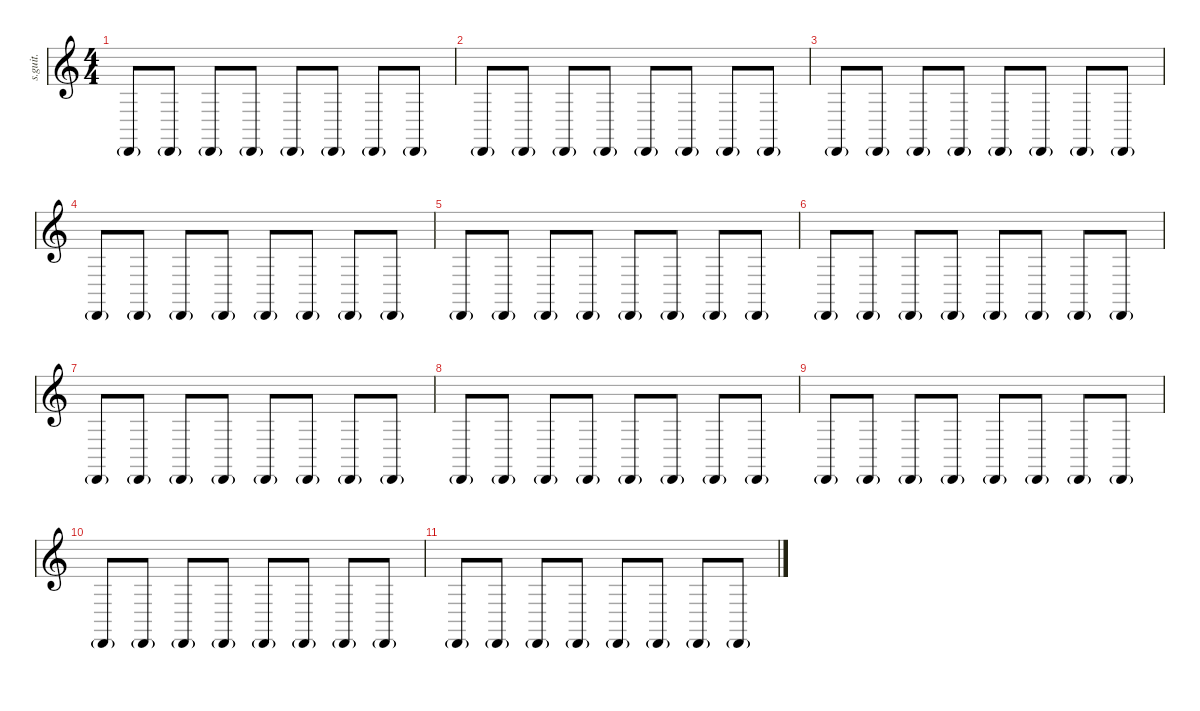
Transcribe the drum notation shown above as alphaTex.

\defaultSystemsLayout 4
\hideDynamics
\bracketExtendMode nobrackets
\track ("Shaker" "s.guit.") {instrument percussion}
\staff {score}
\articulation defaults
\ts (4 4)
\tempo (124 hide)
\clef g2
\ks c "Cabasa (hit)"{g}.8{lyrics (0 "") lyrics (1 "") lyrics (2 "") lyrics (3 "") lyrics (4 "") dy p} "Cabasa (hit)"{g}.8{lyrics (0 "") lyrics (1 "") lyrics (2 "") lyrics (3 "") lyrics (4 "") dy pp} "Cabasa (hit)"{g}.8{lyrics (0 "") lyrics (1 "") lyrics (2 "") lyrics (3 "") lyrics (4 "") dy p} "Cabasa (hit)"{g}.8{lyrics (0 "") lyrics (1 "") lyrics (2 "") lyrics (3 "") lyrics (4 "") dy pp} "Cabasa (hit)"{g}.8{lyrics (0 "") lyrics (1 "") lyrics (2 "") lyrics (3 "") lyrics (4 "") dy p} "Cabasa (hit)"{g}.8{lyrics (0 "") lyrics (1 "") lyrics (2 "") lyrics (3 "") lyrics (4 "") dy pp} "Cabasa (hit)"{g}.8{lyrics (0 "") lyrics (1 "") lyrics (2 "") lyrics (3 "") lyrics (4 "") dy p} "Cabasa (hit)"{g}.8{lyrics (0 "") lyrics (1 "") lyrics (2 "") lyrics (3 "") lyrics (4 "") dy pp}
|
"Cabasa (hit)"{g}.8{lyrics (0 "") lyrics (1 "") lyrics (2 "") lyrics (3 "") lyrics (4 "") dy p} "Cabasa (hit)"{g}.8{lyrics (0 "") lyrics (1 "") lyrics (2 "") lyrics (3 "") lyrics (4 "") dy pp} "Cabasa (hit)"{g}.8{lyrics (0 "") lyrics (1 "") lyrics (2 "") lyrics (3 "") lyrics (4 "") dy p} "Cabasa (hit)"{g}.8{lyrics (0 "") lyrics (1 "") lyrics (2 "") lyrics (3 "") lyrics (4 "") dy pp} "Cabasa (hit)"{g}.8{lyrics (0 "") lyrics (1 "") lyrics (2 "") lyrics (3 "") lyrics (4 "") dy p} "Cabasa (hit)"{g}.8{lyrics (0 "") lyrics (1 "") lyrics (2 "") lyrics (3 "") lyrics (4 "") dy pp} "Cabasa (hit)"{g}.8{lyrics (0 "") lyrics (1 "") lyrics (2 "") lyrics (3 "") lyrics (4 "") dy p} "Cabasa (hit)"{g}.8{lyrics (0 "") lyrics (1 "") lyrics (2 "") lyrics (3 "") lyrics (4 "") dy pp} |
"Cabasa (hit)"{g}.8{lyrics (0 "") lyrics (1 "") lyrics (2 "") lyrics (3 "") lyrics (4 "") dy p} "Cabasa (hit)"{g}.8{lyrics (0 "") lyrics (1 "") lyrics (2 "") lyrics (3 "") lyrics (4 "") dy pp} "Cabasa (hit)"{g}.8{lyrics (0 "") lyrics (1 "") lyrics (2 "") lyrics (3 "") lyrics (4 "") dy p} "Cabasa (hit)"{g}.8{lyrics (0 "") lyrics (1 "") lyrics (2 "") lyrics (3 "") lyrics (4 "") dy pp} "Cabasa (hit)"{g}.8{lyrics (0 "") lyrics (1 "") lyrics (2 "") lyrics (3 "") lyrics (4 "") dy p} "Cabasa (hit)"{g}.8{lyrics (0 "") lyrics (1 "") lyrics (2 "") lyrics (3 "") lyrics (4 "") dy pp} "Cabasa (hit)"{g}.8{lyrics (0 "") lyrics (1 "") lyrics (2 "") lyrics (3 "") lyrics (4 "") dy p} "Cabasa (hit)"{g}.8{lyrics (0 "") lyrics (1 "") lyrics (2 "") lyrics (3 "") lyrics (4 "") dy pp} |
"Cabasa (hit)"{g}.8{lyrics (0 "") lyrics (1 "") lyrics (2 "") lyrics (3 "") lyrics (4 "") dy p} "Cabasa (hit)"{g}.8{lyrics (0 "") lyrics (1 "") lyrics (2 "") lyrics (3 "") lyrics (4 "") dy pp} "Cabasa (hit)"{g}.8{lyrics (0 "") lyrics (1 "") lyrics (2 "") lyrics (3 "") lyrics (4 "") dy p} "Cabasa (hit)"{g}.8{lyrics (0 "") lyrics (1 "") lyrics (2 "") lyrics (3 "") lyrics (4 "") dy pp} "Cabasa (hit)"{g}.8{lyrics (0 "") lyrics (1 "") lyrics (2 "") lyrics (3 "") lyrics (4 "") dy p} "Cabasa (hit)"{g}.8{lyrics (0 "") lyrics (1 "") lyrics (2 "") lyrics (3 "") lyrics (4 "") dy pp} "Cabasa (hit)"{g}.8{lyrics (0 "") lyrics (1 "") lyrics (2 "") lyrics (3 "") lyrics (4 "") dy p} "Cabasa (hit)"{g}.8{lyrics (0 "") lyrics (1 "") lyrics (2 "") lyrics (3 "") lyrics (4 "") dy pp} |
"Cabasa (hit)"{g}.8{lyrics (0 "") lyrics (1 "") lyrics (2 "") lyrics (3 "") lyrics (4 "") dy p} "Cabasa (hit)"{g}.8{lyrics (0 "") lyrics (1 "") lyrics (2 "") lyrics (3 "") lyrics (4 "") dy pp} "Cabasa (hit)"{g}.8{lyrics (0 "") lyrics (1 "") lyrics (2 "") lyrics (3 "") lyrics (4 "") dy p} "Cabasa (hit)"{g}.8{lyrics (0 "") lyrics (1 "") lyrics (2 "") lyrics (3 "") lyrics (4 "") dy pp} "Cabasa (hit)"{g}.8{lyrics (0 "") lyrics (1 "") lyrics (2 "") lyrics (3 "") lyrics (4 "") dy p} "Cabasa (hit)"{g}.8{lyrics (0 "") lyrics (1 "") lyrics (2 "") lyrics (3 "") lyrics (4 "") dy pp} "Cabasa (hit)"{g}.8{lyrics (0 "") lyrics (1 "") lyrics (2 "") lyrics (3 "") lyrics (4 "") dy p} "Cabasa (hit)"{g}.8{lyrics (0 "") lyrics (1 "") lyrics (2 "") lyrics (3 "") lyrics (4 "") dy pp} |
"Cabasa (hit)"{g}.8{lyrics (0 "") lyrics (1 "") lyrics (2 "") lyrics (3 "") lyrics (4 "") dy p} "Cabasa (hit)"{g}.8{lyrics (0 "") lyrics (1 "") lyrics (2 "") lyrics (3 "") lyrics (4 "") dy pp} "Cabasa (hit)"{g}.8{lyrics (0 "") lyrics (1 "") lyrics (2 "") lyrics (3 "") lyrics (4 "") dy p} "Cabasa (hit)"{g}.8{lyrics (0 "") lyrics (1 "") lyrics (2 "") lyrics (3 "") lyrics (4 "") dy pp} "Cabasa (hit)"{g}.8{lyrics (0 "") lyrics (1 "") lyrics (2 "") lyrics (3 "") lyrics (4 "") dy p} "Cabasa (hit)"{g}.8{lyrics (0 "") lyrics (1 "") lyrics (2 "") lyrics (3 "") lyrics (4 "") dy pp} "Cabasa (hit)"{g}.8{lyrics (0 "") lyrics (1 "") lyrics (2 "") lyrics (3 "") lyrics (4 "") dy p} "Cabasa (hit)"{g}.8{lyrics (0 "") lyrics (1 "") lyrics (2 "") lyrics (3 "") lyrics (4 "") dy pp} |
"Cabasa (hit)"{g}.8{lyrics (0 "") lyrics (1 "") lyrics (2 "") lyrics (3 "") lyrics (4 "") dy p} "Cabasa (hit)"{g}.8{lyrics (0 "") lyrics (1 "") lyrics (2 "") lyrics (3 "") lyrics (4 "") dy pp} "Cabasa (hit)"{g}.8{lyrics (0 "") lyrics (1 "") lyrics (2 "") lyrics (3 "") lyrics (4 "") dy p} "Cabasa (hit)"{g}.8{lyrics (0 "") lyrics (1 "") lyrics (2 "") lyrics (3 "") lyrics (4 "") dy pp} "Cabasa (hit)"{g}.8{lyrics (0 "") lyrics (1 "") lyrics (2 "") lyrics (3 "") lyrics (4 "") dy p} "Cabasa (hit)"{g}.8{lyrics (0 "") lyrics (1 "") lyrics (2 "") lyrics (3 "") lyrics (4 "") dy pp} "Cabasa (hit)"{g}.8{lyrics (0 "") lyrics (1 "") lyrics (2 "") lyrics (3 "") lyrics (4 "") dy p} "Cabasa (hit)"{g}.8{lyrics (0 "") lyrics (1 "") lyrics (2 "") lyrics (3 "") lyrics (4 "") dy pp} |
"Cabasa (hit)"{g}.8{lyrics (0 "") lyrics (1 "") lyrics (2 "") lyrics (3 "") lyrics (4 "") dy p} "Cabasa (hit)"{g}.8{lyrics (0 "") lyrics (1 "") lyrics (2 "") lyrics (3 "") lyrics (4 "") dy pp} "Cabasa (hit)"{g}.8{lyrics (0 "") lyrics (1 "") lyrics (2 "") lyrics (3 "") lyrics (4 "") dy p} "Cabasa (hit)"{g}.8{lyrics (0 "") lyrics (1 "") lyrics (2 "") lyrics (3 "") lyrics (4 "") dy pp} "Cabasa (hit)"{g}.8{lyrics (0 "") lyrics (1 "") lyrics (2 "") lyrics (3 "") lyrics (4 "") dy p} "Cabasa (hit)"{g}.8{lyrics (0 "") lyrics (1 "") lyrics (2 "") lyrics (3 "") lyrics (4 "") dy pp} "Cabasa (hit)"{g}.8{lyrics (0 "") lyrics (1 "") lyrics (2 "") lyrics (3 "") lyrics (4 "") dy p} "Cabasa (hit)"{g}.8{lyrics (0 "") lyrics (1 "") lyrics (2 "") lyrics (3 "") lyrics (4 "") dy pp} |
"Cabasa (hit)"{g}.8{lyrics (0 "") lyrics (1 "") lyrics (2 "") lyrics (3 "") lyrics (4 "") dy p} "Cabasa (hit)"{g}.8{lyrics (0 "") lyrics (1 "") lyrics (2 "") lyrics (3 "") lyrics (4 "") dy pp} "Cabasa (hit)"{g}.8{lyrics (0 "") lyrics (1 "") lyrics (2 "") lyrics (3 "") lyrics (4 "") dy p} "Cabasa (hit)"{g}.8{lyrics (0 "") lyrics (1 "") lyrics (2 "") lyrics (3 "") lyrics (4 "") dy pp} "Cabasa (hit)"{g}.8{lyrics (0 "") lyrics (1 "") lyrics (2 "") lyrics (3 "") lyrics (4 "") dy p} "Cabasa (hit)"{g}.8{lyrics (0 "") lyrics (1 "") lyrics (2 "") lyrics (3 "") lyrics (4 "") dy pp} "Cabasa (hit)"{g}.8{lyrics (0 "") lyrics (1 "") lyrics (2 "") lyrics (3 "") lyrics (4 "") dy p} "Cabasa (hit)"{g}.8{lyrics (0 "") lyrics (1 "") lyrics (2 "") lyrics (3 "") lyrics (4 "") dy pp} |
"Cabasa (hit)"{g}.8{lyrics (0 "") lyrics (1 "") lyrics (2 "") lyrics (3 "") lyrics (4 "") dy p} "Cabasa (hit)"{g}.8{lyrics (0 "") lyrics (1 "") lyrics (2 "") lyrics (3 "") lyrics (4 "") dy pp} "Cabasa (hit)"{g}.8{lyrics (0 "") lyrics (1 "") lyrics (2 "") lyrics (3 "") lyrics (4 "") dy p} "Cabasa (hit)"{g}.8{lyrics (0 "") lyrics (1 "") lyrics (2 "") lyrics (3 "") lyrics (4 "") dy pp} "Cabasa (hit)"{g}.8{lyrics (0 "") lyrics (1 "") lyrics (2 "") lyrics (3 "") lyrics (4 "") dy p} "Cabasa (hit)"{g}.8{lyrics (0 "") lyrics (1 "") lyrics (2 "") lyrics (3 "") lyrics (4 "") dy pp} "Cabasa (hit)"{g}.8{lyrics (0 "") lyrics (1 "") lyrics (2 "") lyrics (3 "") lyrics (4 "") dy p} "Cabasa (hit)"{g}.8{lyrics (0 "") lyrics (1 "") lyrics (2 "") lyrics (3 "") lyrics (4 "") dy pp} |
"Cabasa (hit)"{g}.8{lyrics (0 "") lyrics (1 "") lyrics (2 "") lyrics (3 "") lyrics (4 "") dy p} "Cabasa (hit)"{g}.8{lyrics (0 "") lyrics (1 "") lyrics (2 "") lyrics (3 "") lyrics (4 "") dy pp} "Cabasa (hit)"{g}.8{lyrics (0 "") lyrics (1 "") lyrics (2 "") lyrics (3 "") lyrics (4 "") dy p} "Cabasa (hit)"{g}.8{lyrics (0 "") lyrics (1 "") lyrics (2 "") lyrics (3 "") lyrics (4 "") dy pp} "Cabasa (hit)"{g}.8{lyrics (0 "") lyrics (1 "") lyrics (2 "") lyrics (3 "") lyrics (4 "") dy p} "Cabasa (hit)"{g}.8{lyrics (0 "") lyrics (1 "") lyrics (2 "") lyrics (3 "") lyrics (4 "") dy pp} "Cabasa (hit)"{g}.8{lyrics (0 "") lyrics (1 "") lyrics (2 "") lyrics (3 "") lyrics (4 "") dy p} "Cabasa (hit)"{g}.8{lyrics (0 "") lyrics (1 "") lyrics (2 "") lyrics (3 "") lyrics (4 "") dy pp}
